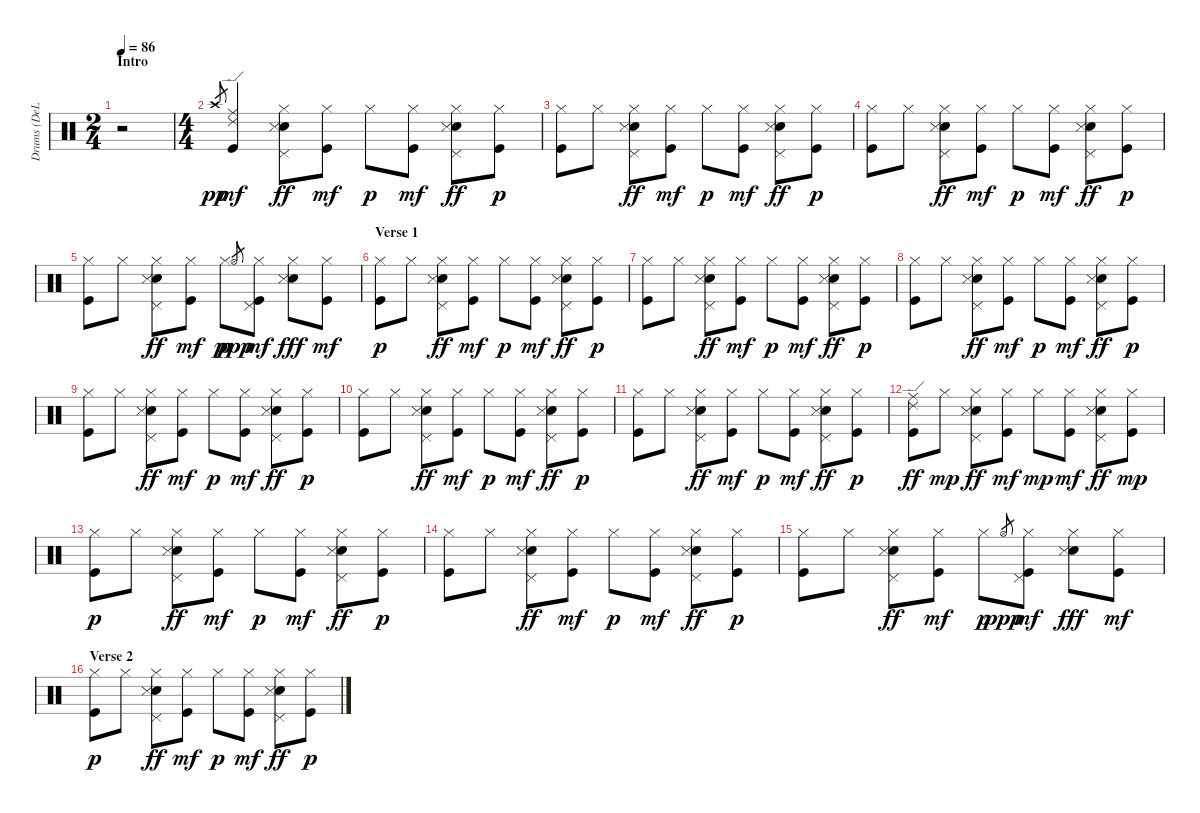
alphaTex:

\track ("Drums (DeLorenzo)" "Drums (DeL") {instrument percussion}
\staff {score}
\articulation defaults
\ts (2 4)
\section ("" "Intro")
\tempo 86
\clef neutral
\ks c
r.2{dy pp} |
\ts (4 4)
"Crash high (hit)".8{gr} ("Ride (edge) 2" "Ride (middle)" "Kick (hit)").4{dy mf} ("Hi-Hat (closed)" "Pedal Hi-Hat (hit)" "Electric Snare (hit)" "Snare (side stick) 3").8{dy ff} ("Hi-Hat (closed)" "Kick (hit)").8{dy mf} "Hi-Hat (closed)".8{dy p} ("Hi-Hat (closed)" "Kick (hit)").8{dy mf} ("Hi-Hat (closed)" "Pedal Hi-Hat (hit)" "Electric Snare (hit)" "Snare (side stick) 3").8{dy ff} ("Hi-Hat (closed)" "Kick (hit)").8{dy p} |
("Hi-Hat (closed)" "Kick (hit)").8 "Hi-Hat (closed)".8 ("Hi-Hat (closed)" "Pedal Hi-Hat (hit)" "Electric Snare (hit)" "Snare (side stick) 3").8{dy ff} ("Hi-Hat (closed)" "Kick (hit)").8{dy mf} "Hi-Hat (closed)".8{dy p} ("Hi-Hat (closed)" "Kick (hit)").8{dy mf} ("Hi-Hat (closed)" "Pedal Hi-Hat (hit)" "Electric Snare (hit)" "Snare (side stick) 3").8{dy ff} ("Hi-Hat (closed)" "Kick (hit)").8{dy p} |
("Hi-Hat (closed)" "Kick (hit)").8 "Hi-Hat (closed)".8 ("Hi-Hat (closed)" "Pedal Hi-Hat (hit)" "Electric Snare (hit)" "Snare (side stick) 3").8{dy ff} ("Hi-Hat (closed)" "Kick (hit)").8{dy mf} "Hi-Hat (closed)".8{dy p} ("Hi-Hat (closed)" "Kick (hit)").8{dy mf} ("Hi-Hat (closed)" "Pedal Hi-Hat (hit)" "Electric Snare (hit)" "Snare (side stick) 3").8{dy ff} ("Hi-Hat (closed)" "Kick (hit)").8{dy p} |
("Hi-Hat (closed)" "Kick (hit)").8 "Hi-Hat (closed)".8 ("Hi-Hat (closed)" "Pedal Hi-Hat (hit)" "Electric Snare (hit)" "Snare (side stick) 3").8{dy ff} ("Hi-Hat (closed)" "Kick (hit)").8{dy mf} "Hi-Hat (closed)".8{dy p} "Hi-Hat (open)".8{gr dy ppp} ("Hi-Hat (closed)" "Pedal Hi-Hat (hit)" "Kick (hit)").8{dy mf} ("Hi-Hat (closed)" "Electric Snare (hit)" "Snare (side stick) 3").8{dy fff} ("Hi-Hat (closed)" "Kick (hit)").8{dy mf} |
\section ("" "Verse 1")
("Hi-Hat (closed)" "Kick (hit)").8{dy p} "Hi-Hat (closed)".8 ("Hi-Hat (closed)" "Pedal Hi-Hat (hit)" "Electric Snare (hit)" "Snare (side stick) 3").8{dy ff} ("Hi-Hat (closed)" "Kick (hit)").8{dy mf} "Hi-Hat (closed)".8{dy p} ("Hi-Hat (closed)" "Kick (hit)").8{dy mf} ("Hi-Hat (closed)" "Pedal Hi-Hat (hit)" "Electric Snare (hit)" "Snare (side stick) 3").8{dy ff} ("Hi-Hat (closed)" "Kick (hit)").8{dy p} |
("Hi-Hat (closed)" "Kick (hit)").8 "Hi-Hat (closed)".8 ("Hi-Hat (closed)" "Pedal Hi-Hat (hit)" "Electric Snare (hit)" "Snare (side stick) 3").8{dy ff} ("Hi-Hat (closed)" "Kick (hit)").8{dy mf} "Hi-Hat (closed)".8{dy p} ("Hi-Hat (closed)" "Kick (hit)").8{dy mf} ("Hi-Hat (closed)" "Pedal Hi-Hat (hit)" "Electric Snare (hit)" "Snare (side stick) 3").8{dy ff} ("Hi-Hat (closed)" "Kick (hit)").8{dy p} |
("Hi-Hat (closed)" "Kick (hit)").8 "Hi-Hat (closed)".8 ("Hi-Hat (closed)" "Pedal Hi-Hat (hit)" "Electric Snare (hit)" "Snare (side stick) 3").8{dy ff} ("Hi-Hat (closed)" "Kick (hit)").8{dy mf} "Hi-Hat (closed)".8{dy p} ("Hi-Hat (closed)" "Kick (hit)").8{dy mf} ("Hi-Hat (closed)" "Pedal Hi-Hat (hit)" "Electric Snare (hit)" "Snare (side stick) 3").8{dy ff} ("Hi-Hat (closed)" "Kick (hit)").8{dy p} |
("Hi-Hat (closed)" "Kick (hit)").8 "Hi-Hat (closed)".8 ("Hi-Hat (closed)" "Pedal Hi-Hat (hit)" "Electric Snare (hit)" "Snare (side stick) 3").8{dy ff} ("Hi-Hat (closed)" "Kick (hit)").8{dy mf} "Hi-Hat (closed)".8{dy p} ("Hi-Hat (closed)" "Kick (hit)").8{dy mf} ("Hi-Hat (closed)" "Pedal Hi-Hat (hit)" "Electric Snare (hit)" "Snare (side stick) 3").8{dy ff} ("Hi-Hat (closed)" "Kick (hit)").8{dy p} |
("Hi-Hat (closed)" "Kick (hit)").8 "Hi-Hat (closed)".8 ("Hi-Hat (closed)" "Pedal Hi-Hat (hit)" "Electric Snare (hit)" "Snare (side stick) 3").8{dy ff} ("Hi-Hat (closed)" "Kick (hit)").8{dy mf} "Hi-Hat (closed)".8{dy p} ("Hi-Hat (closed)" "Kick (hit)").8{dy mf} ("Hi-Hat (closed)" "Pedal Hi-Hat (hit)" "Electric Snare (hit)" "Snare (side stick) 3").8{dy ff} ("Hi-Hat (closed)" "Kick (hit)").8{dy p} |
("Hi-Hat (closed)" "Kick (hit)").8 "Hi-Hat (closed)".8 ("Hi-Hat (closed)" "Pedal Hi-Hat (hit)" "Electric Snare (hit)" "Snare (side stick) 3").8{dy ff} ("Hi-Hat (closed)" "Kick (hit)").8{dy mf} "Hi-Hat (closed)".8{dy p} ("Hi-Hat (closed)" "Kick (hit)").8{dy mf} ("Hi-Hat (closed)" "Pedal Hi-Hat (hit)" "Electric Snare (hit)" "Snare (side stick) 3").8{dy ff} ("Hi-Hat (closed)" "Kick (hit)").8{dy p} |
("Ride (edge) 2" "Ride (middle)" "Kick (hit)").8{dy ff} "Hi-Hat (closed)".8{dy mp} ("Hi-Hat (closed)" "Pedal Hi-Hat (hit)" "Electric Snare (hit)" "Snare (side stick) 3").8{dy ff} ("Hi-Hat (closed)" "Kick (hit)").8{dy mf} "Hi-Hat (closed)".8{dy mp} ("Hi-Hat (closed)" "Kick (hit)").8{dy mf} ("Hi-Hat (closed)" "Pedal Hi-Hat (hit)" "Electric Snare (hit)" "Snare (side stick) 3").8{dy ff} ("Hi-Hat (closed)" "Kick (hit)").8{dy mp} |
("Hi-Hat (closed)" "Kick (hit)").8{dy p} "Hi-Hat (closed)".8 ("Hi-Hat (closed)" "Pedal Hi-Hat (hit)" "Electric Snare (hit)" "Snare (side stick) 3").8{dy ff} ("Hi-Hat (closed)" "Kick (hit)").8{dy mf} "Hi-Hat (closed)".8{dy p} ("Hi-Hat (closed)" "Kick (hit)").8{dy mf} ("Hi-Hat (closed)" "Pedal Hi-Hat (hit)" "Electric Snare (hit)" "Snare (side stick) 3").8{dy ff} ("Hi-Hat (closed)" "Kick (hit)").8{dy p} |
("Hi-Hat (closed)" "Kick (hit)").8 "Hi-Hat (closed)".8 ("Hi-Hat (closed)" "Pedal Hi-Hat (hit)" "Electric Snare (hit)" "Snare (side stick) 3").8{dy ff} ("Hi-Hat (closed)" "Kick (hit)").8{dy mf} "Hi-Hat (closed)".8{dy p} ("Hi-Hat (closed)" "Kick (hit)").8{dy mf} ("Hi-Hat (closed)" "Pedal Hi-Hat (hit)" "Electric Snare (hit)" "Snare (side stick) 3").8{dy ff} ("Hi-Hat (closed)" "Kick (hit)").8{dy p} |
("Hi-Hat (closed)" "Kick (hit)").8 "Hi-Hat (closed)".8 ("Hi-Hat (closed)" "Pedal Hi-Hat (hit)" "Electric Snare (hit)" "Snare (side stick) 3").8{dy ff} ("Hi-Hat (closed)" "Kick (hit)").8{dy mf} "Hi-Hat (closed)".8{dy p} "Hi-Hat (open)".8{gr dy ppp} ("Hi-Hat (closed)" "Pedal Hi-Hat (hit)" "Kick (hit)").8{dy mf} ("Hi-Hat (closed)" "Electric Snare (hit)" "Snare (side stick) 3").8{dy fff} ("Hi-Hat (closed)" "Kick (hit)").8{dy mf} |
\section ("" "Verse 2")
("Hi-Hat (closed)" "Kick (hit)").8{dy p} "Hi-Hat (closed)".8 ("Hi-Hat (closed)" "Pedal Hi-Hat (hit)" "Electric Snare (hit)" "Snare (side stick) 3").8{dy ff} ("Hi-Hat (closed)" "Kick (hit)").8{dy mf} "Hi-Hat (closed)".8{dy p} ("Hi-Hat (closed)" "Kick (hit)").8{dy mf} ("Hi-Hat (closed)" "Pedal Hi-Hat (hit)" "Electric Snare (hit)" "Snare (side stick) 3").8{dy ff} ("Hi-Hat (closed)" "Kick (hit)").8{dy p}
